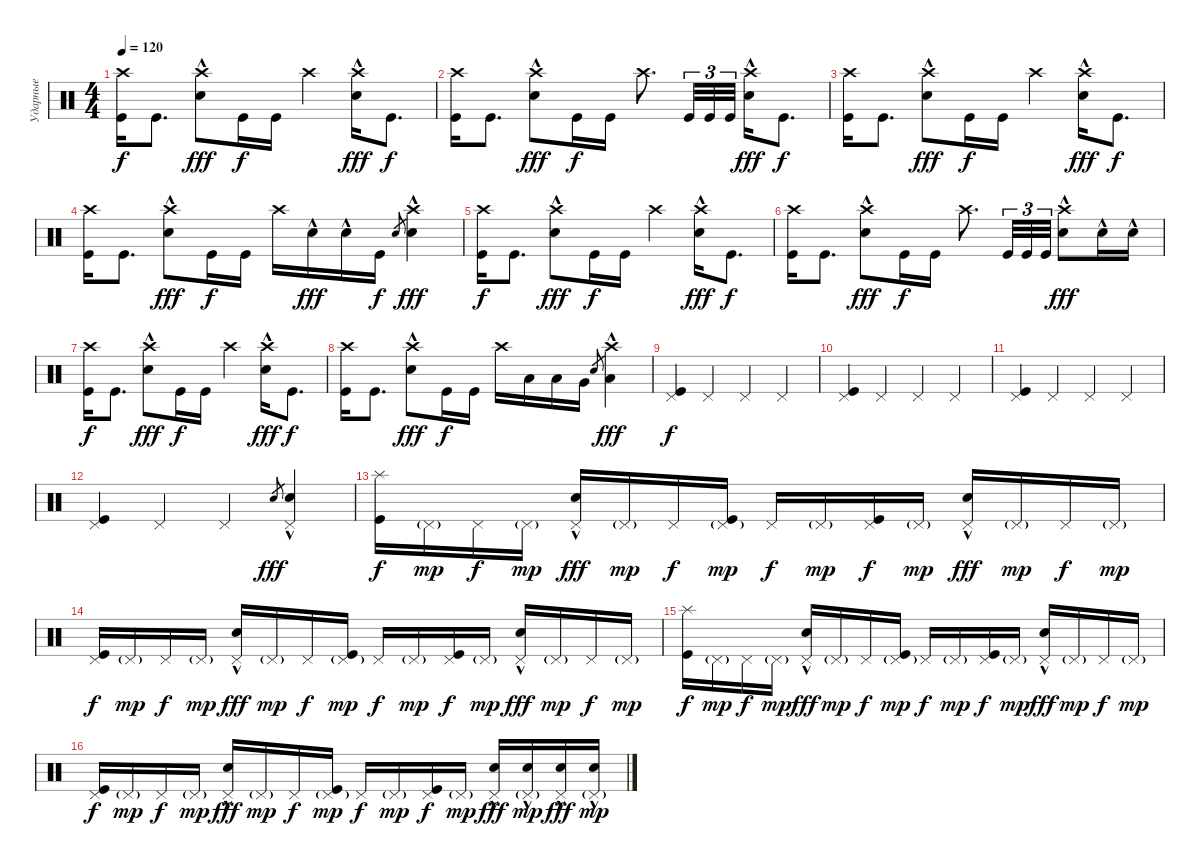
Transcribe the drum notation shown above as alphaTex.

\track ("Ударные" "Ударные") {instrument percussion}
\staff {score}
\articulation defaults
\ts (4 4)
\tempo 120
\clef neutral
\ks c
("Kick (hit)" "Crash high (hit)").16{dy f} "Kick (hit)".8{d} ("Electric Snare (hit)"{hac} "Crash high (hit)").8{dy fff} "Kick (hit)".16{dy f} "Kick (hit)".16 "Crash high (hit)".4 ("Electric Snare (hit)"{hac} "Crash high (hit)").16{dy fff} "Kick (hit)".8{d dy f} |
("Kick (hit)" "Crash high (hit)").16 "Kick (hit)".8{d} ("Electric Snare (hit)"{hac} "Crash high (hit)").8{dy fff} "Kick (hit)".16{dy f} "Kick (hit)".16 "Crash high (hit)".8{d} "Kick (hit)".32{tu (3 2)} "Kick (hit)".32{tu (3 2)} "Kick (hit)".32{tu (3 2)} ("Electric Snare (hit)"{hac} "Crash high (hit)").16{dy fff} "Kick (hit)".8{d dy f} |
("Kick (hit)" "Crash high (hit)").16 "Kick (hit)".8{d} ("Electric Snare (hit)"{hac} "Crash high (hit)").8{dy fff} "Kick (hit)".16{dy f} "Kick (hit)".16 "Crash high (hit)".4 ("Electric Snare (hit)"{hac} "Crash high (hit)").16{dy fff} "Kick (hit)".8{d dy f} |
("Kick (hit)" "Crash high (hit)").16 "Kick (hit)".8{d} ("Electric Snare (hit)"{hac} "Crash high (hit)").8{dy fff} "Kick (hit)".16{dy f} "Kick (hit)".16 "Crash high (hit)".16 "Electric Snare (hit)"{hac}.16{dy fff} "Electric Snare (hit)"{hac}.16 "Kick (hit)".16{dy f} "Electric Snare (hit)".8{gr} ("Electric Snare (hit)"{hac} "Crash high (hit)").4{dy fff} |
("Kick (hit)" "Crash high (hit)").16{dy f} "Kick (hit)".8{d} ("Electric Snare (hit)"{hac} "Crash high (hit)").8{dy fff} "Kick (hit)".16{dy f} "Kick (hit)".16 "Crash high (hit)".4 ("Electric Snare (hit)"{hac} "Crash high (hit)").16{dy fff} "Kick (hit)".8{d dy f} |
("Kick (hit)" "Crash high (hit)").16 "Kick (hit)".8{d} ("Electric Snare (hit)"{hac} "Crash high (hit)").8{dy fff} "Kick (hit)".16{dy f} "Kick (hit)".16 "Crash high (hit)".8{d} "Kick (hit)".32{tu (3 2)} "Kick (hit)".32{tu (3 2)} "Kick (hit)".32{tu (3 2)} ("Electric Snare (hit)"{hac} "Crash high (hit)").8{dy fff} "Electric Snare (hit)"{hac}.16 "Electric Snare (hit)"{hac}.16 |
("Kick (hit)" "Crash high (hit)").16{dy f} "Kick (hit)".8{d} ("Electric Snare (hit)"{hac} "Crash high (hit)").8{dy fff} "Kick (hit)".16{dy f} "Kick (hit)".16 "Crash high (hit)".4 ("Electric Snare (hit)"{hac} "Crash high (hit)").16{dy fff} "Kick (hit)".8{d dy f} |
("Kick (hit)" "Crash high (hit)").16 "Kick (hit)".8{d} ("Electric Snare (hit)"{hac} "Crash high (hit)").8{dy fff} "Kick (hit)".16{dy f} "Kick (hit)".16 "Crash high (hit)".16 "Low Tom (hit)".16 "Low Tom (hit)".16 "Very Low Tom (hit)".16 "Electric Snare (hit)".8{gr} ("Low Floor Tom (hit)"{hac} "Crash high (hit)").4{dy fff} |
("Kick (hit)" "Pedal Hi-Hat (hit)").4{dy f} "Pedal Hi-Hat (hit)".4 "Pedal Hi-Hat (hit)".4 "Pedal Hi-Hat (hit)".4 |
("Kick (hit)" "Pedal Hi-Hat (hit)").4 "Pedal Hi-Hat (hit)".4 "Pedal Hi-Hat (hit)".4 "Pedal Hi-Hat (hit)".4 |
("Kick (hit)" "Pedal Hi-Hat (hit)").4 "Pedal Hi-Hat (hit)".4 "Pedal Hi-Hat (hit)".4 "Pedal Hi-Hat (hit)".4 |
("Kick (hit)" "Pedal Hi-Hat (hit)").4 "Pedal Hi-Hat (hit)".4 "Pedal Hi-Hat (hit)".4 "Electric Snare (hit)".8{gr dy fff} ("Electric Snare (hit)"{hac} "Pedal Hi-Hat (hit)").4 |
("Kick (hit)" "Splash (hit)").16{dy f} "Pedal Hi-Hat (hit)"{g}.16{dy mp} "Pedal Hi-Hat (hit)".16{dy f} "Pedal Hi-Hat (hit)"{g}.16{dy mp} ("Electric Snare (hit)"{hac} "Pedal Hi-Hat (hit)").16{dy fff} "Pedal Hi-Hat (hit)"{g}.16{dy mp} "Pedal Hi-Hat (hit)".16{dy f} ("Kick (hit)" "Pedal Hi-Hat (hit)"{g}).16{dy mp} "Pedal Hi-Hat (hit)".16{dy f} "Pedal Hi-Hat (hit)"{g}.16{dy mp} ("Kick (hit)" "Pedal Hi-Hat (hit)").16{dy f} "Pedal Hi-Hat (hit)"{g}.16{dy mp} ("Electric Snare (hit)"{hac} "Pedal Hi-Hat (hit)").16{dy fff} "Pedal Hi-Hat (hit)"{g}.16{dy mp} "Pedal Hi-Hat (hit)".16{dy f} "Pedal Hi-Hat (hit)"{g}.16{dy mp} |
("Kick (hit)" "Pedal Hi-Hat (hit)").16{dy f} "Pedal Hi-Hat (hit)"{g}.16{dy mp} "Pedal Hi-Hat (hit)".16{dy f} "Pedal Hi-Hat (hit)"{g}.16{dy mp} ("Electric Snare (hit)"{hac} "Pedal Hi-Hat (hit)").16{dy fff} "Pedal Hi-Hat (hit)"{g}.16{dy mp} "Pedal Hi-Hat (hit)".16{dy f} ("Kick (hit)" "Pedal Hi-Hat (hit)"{g}).16{dy mp} "Pedal Hi-Hat (hit)".16{dy f} "Pedal Hi-Hat (hit)"{g}.16{dy mp} ("Kick (hit)" "Pedal Hi-Hat (hit)").16{dy f} "Pedal Hi-Hat (hit)"{g}.16{dy mp} ("Electric Snare (hit)"{hac} "Pedal Hi-Hat (hit)").16{dy fff} "Pedal Hi-Hat (hit)"{g}.16{dy mp} "Pedal Hi-Hat (hit)".16{dy f} "Pedal Hi-Hat (hit)"{g}.16{dy mp} |
("Kick (hit)" "Splash (hit)").16{dy f} "Pedal Hi-Hat (hit)"{g}.16{dy mp} "Pedal Hi-Hat (hit)".16{dy f} "Pedal Hi-Hat (hit)"{g}.16{dy mp} ("Electric Snare (hit)"{hac} "Pedal Hi-Hat (hit)").16{dy fff} "Pedal Hi-Hat (hit)"{g}.16{dy mp} "Pedal Hi-Hat (hit)".16{dy f} ("Kick (hit)" "Pedal Hi-Hat (hit)"{g}).16{dy mp} "Pedal Hi-Hat (hit)".16{dy f} "Pedal Hi-Hat (hit)"{g}.16{dy mp} ("Kick (hit)" "Pedal Hi-Hat (hit)").16{dy f} "Pedal Hi-Hat (hit)"{g}.16{dy mp} ("Electric Snare (hit)"{hac} "Pedal Hi-Hat (hit)").16{dy fff} "Pedal Hi-Hat (hit)"{g}.16{dy mp} "Pedal Hi-Hat (hit)".16{dy f} "Pedal Hi-Hat (hit)"{g}.16{dy mp} |
("Kick (hit)" "Pedal Hi-Hat (hit)").16{dy f} "Pedal Hi-Hat (hit)"{g}.16{dy mp} "Pedal Hi-Hat (hit)".16{dy f} "Pedal Hi-Hat (hit)"{g}.16{dy mp} ("Electric Snare (hit)"{hac} "Pedal Hi-Hat (hit)").16{dy fff} "Pedal Hi-Hat (hit)"{g}.16{dy mp} "Pedal Hi-Hat (hit)".16{dy f} ("Kick (hit)" "Pedal Hi-Hat (hit)"{g}).16{dy mp} "Pedal Hi-Hat (hit)".16{dy f} "Pedal Hi-Hat (hit)"{g}.16{dy mp} ("Kick (hit)" "Pedal Hi-Hat (hit)").16{dy f} "Pedal Hi-Hat (hit)"{g}.16{dy mp} ("Electric Snare (hit)"{hac} "Pedal Hi-Hat (hit)").16{dy fff} ("Electric Snare (hit)"{hac} "Pedal Hi-Hat (hit)"{g}).16{dy mp} ("Electric Snare (hit)"{hac} "Pedal Hi-Hat (hit)").16{dy fff} ("Electric Snare (hit)"{hac} "Pedal Hi-Hat (hit)"{g}).16{dy mp}
